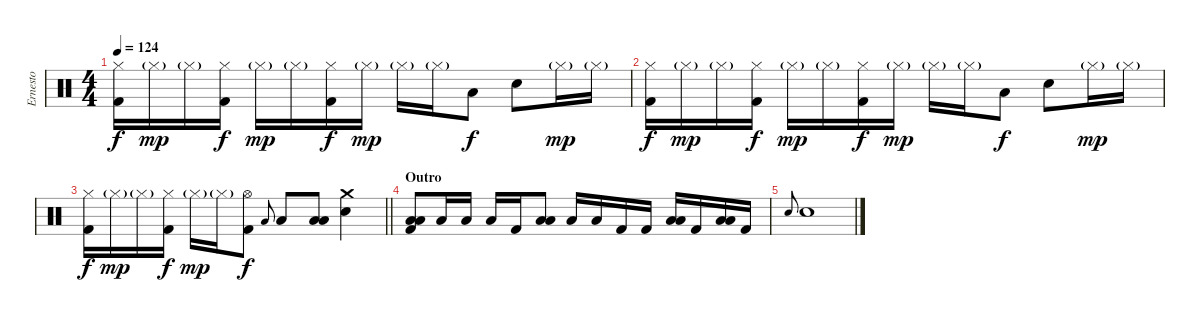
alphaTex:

\track ("Ernesto" "Ernesto") {instrument percussion}
\staff
\articulation defaults
\ts (4 4)
\tempo 124
\clef neutral
\ks c
("Hi-Hat (closed)" "Kick (hit) 2").16{dy f} "Hi-Hat (closed)"{g}.16{dy mp} "Hi-Hat (closed)"{g}.16 ("Hi-Hat (closed)" "Kick (hit) 2").16{dy f} "Hi-Hat (closed)"{g}.16{dy mp} "Hi-Hat (closed)"{g}.16 ("Hi-Hat (closed)" "Kick (hit) 2").16{dy f} "Hi-Hat (closed)"{g}.16{dy mp} "Hi-Hat (closed)"{g}.16 "Hi-Hat (closed)"{g}.16 "Low Tom (hit)".8{dy f} "Electric Snare (hit)".8 "Hi-Hat (closed)"{g}.16{dy mp} "Hi-Hat (closed)"{g}.16 |
("Hi-Hat (closed)" "Kick (hit) 2").16{dy f} "Hi-Hat (closed)"{g}.16{dy mp} "Hi-Hat (closed)"{g}.16 ("Hi-Hat (closed)" "Kick (hit) 2").16{dy f} "Hi-Hat (closed)"{g}.16{dy mp} "Hi-Hat (closed)"{g}.16 ("Hi-Hat (closed)" "Kick (hit) 2").16{dy f} "Hi-Hat (closed)"{g}.16{dy mp} "Hi-Hat (closed)"{g}.16 "Hi-Hat (closed)"{g}.16 "Low Tom (hit)".8{dy f} "Electric Snare (hit)".8 "Hi-Hat (closed)"{g}.16{dy mp} "Hi-Hat (closed)"{g}.16 |
\barLineRight lightlight
("Hi-Hat (closed)" "Kick (hit) 2").16{dy f} "Hi-Hat (closed)"{g}.16{dy mp} "Hi-Hat (closed)"{g}.16 ("Hi-Hat (closed)" "Kick (hit) 2").16{dy f} "Hi-Hat (closed)"{g}.16{dy mp} "Hi-Hat (closed)"{g}.16 ("Hi-Hat (open)" "Kick (hit) 2").8{dy f} "Low Tom (hit)".8{gr onbeat} "Low Tom (hit)".8 ("Low Tom (hit)" "Low Floor Tom (hit)").8 ("Crash medium (hit)" "Electric Snare (hit)").4 |
\section ("" "Outro")
("Low Tom (hit)" "Low Floor Tom (hit)" "Kick (hit) 2").8 "Low Floor Tom (hit)".16 "Low Tom (hit)".16 "Low Floor Tom (hit)".16 "Kick (hit) 2".16 ("Low Tom (hit)" "Low Floor Tom (hit)").8 "Low Floor Tom (hit)".16 "Low Tom (hit)".16 "Kick (hit) 2".16 "Kick (hit) 2".16 ("Low Tom (hit)" "Low Floor Tom (hit)").16 "Kick (hit) 2".16 ("Low Tom (hit)" "Low Floor Tom (hit)").16 "Kick (hit) 2".16 |
"Electric Snare (hit)".8{gr onbeat} "Electric Snare (hit)".1
